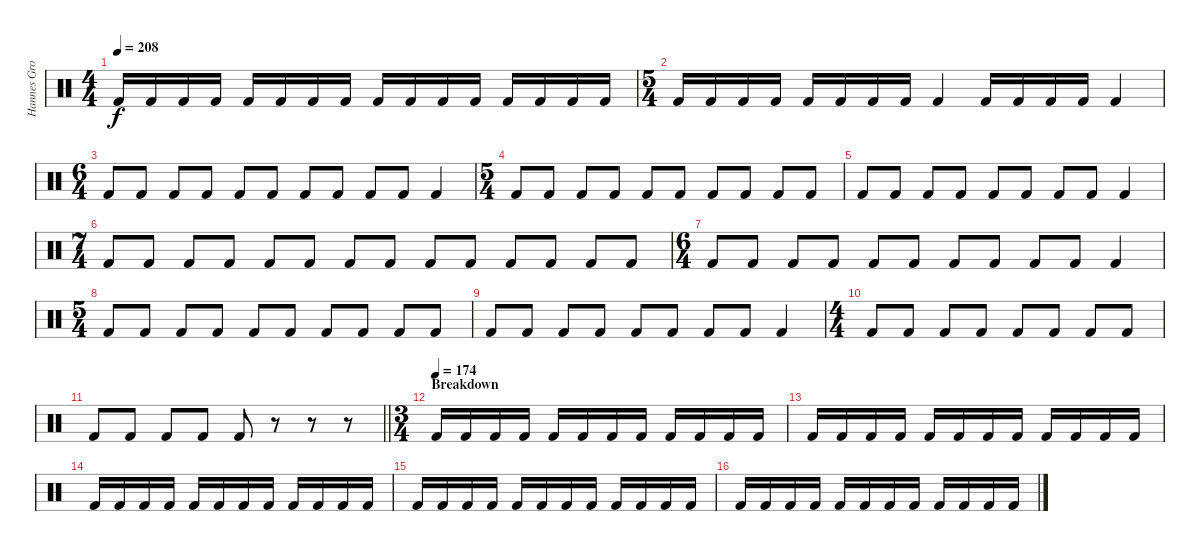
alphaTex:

\track ("Hannes Grossmann" "Hannes Gro") {instrument percussion}
\staff {score}
\articulation defaults
\ts (4 4)
\tempo 208
\clef neutral
\ks c "Kick (hit) 2".16{dy f} "Kick (hit) 2".16 "Kick (hit) 2".16 "Kick (hit) 2".16 "Kick (hit) 2".16 "Kick (hit) 2".16 "Kick (hit) 2".16 "Kick (hit) 2".16 "Kick (hit) 2".16 "Kick (hit) 2".16 "Kick (hit) 2".16 "Kick (hit) 2".16 "Kick (hit) 2".16 "Kick (hit) 2".16 "Kick (hit) 2".16 "Kick (hit) 2".16
|
\ts (5 4)
"Kick (hit) 2".16 "Kick (hit) 2".16 "Kick (hit) 2".16 "Kick (hit) 2".16 "Kick (hit) 2".16 "Kick (hit) 2".16 "Kick (hit) 2".16 "Kick (hit) 2".16 "Kick (hit) 2".4 "Kick (hit) 2".16 "Kick (hit) 2".16 "Kick (hit) 2".16 "Kick (hit) 2".16 "Kick (hit) 2".4 |
\ts (6 4)
"Kick (hit) 2".8 "Kick (hit) 2".8 "Kick (hit) 2".8 "Kick (hit) 2".8 "Kick (hit) 2".8 "Kick (hit) 2".8 "Kick (hit) 2".8 "Kick (hit) 2".8 "Kick (hit) 2".8 "Kick (hit) 2".8 "Kick (hit) 2".4 |
\ts (5 4)
"Kick (hit) 2".8 "Kick (hit) 2".8 "Kick (hit) 2".8 "Kick (hit) 2".8 "Kick (hit) 2".8 "Kick (hit) 2".8 "Kick (hit) 2".8 "Kick (hit) 2".8 "Kick (hit) 2".8 "Kick (hit) 2".8 |
"Kick (hit) 2".8 "Kick (hit) 2".8 "Kick (hit) 2".8 "Kick (hit) 2".8 "Kick (hit) 2".8 "Kick (hit) 2".8 "Kick (hit) 2".8 "Kick (hit) 2".8 "Kick (hit) 2".4 |
\ts (7 4)
"Kick (hit) 2".8 "Kick (hit) 2".8 "Kick (hit) 2".8 "Kick (hit) 2".8 "Kick (hit) 2".8 "Kick (hit) 2".8 "Kick (hit) 2".8 "Kick (hit) 2".8 "Kick (hit) 2".8 "Kick (hit) 2".8 "Kick (hit) 2".8 "Kick (hit) 2".8 "Kick (hit) 2".8 "Kick (hit) 2".8 |
\ts (6 4)
"Kick (hit) 2".8 "Kick (hit) 2".8 "Kick (hit) 2".8 "Kick (hit) 2".8 "Kick (hit) 2".8 "Kick (hit) 2".8 "Kick (hit) 2".8 "Kick (hit) 2".8 "Kick (hit) 2".8 "Kick (hit) 2".8 "Kick (hit) 2".4 |
\ts (5 4)
"Kick (hit) 2".8 "Kick (hit) 2".8 "Kick (hit) 2".8 "Kick (hit) 2".8 "Kick (hit) 2".8 "Kick (hit) 2".8 "Kick (hit) 2".8 "Kick (hit) 2".8 "Kick (hit) 2".8 "Kick (hit) 2".8 |
"Kick (hit) 2".8 "Kick (hit) 2".8 "Kick (hit) 2".8 "Kick (hit) 2".8 "Kick (hit) 2".8 "Kick (hit) 2".8 "Kick (hit) 2".8 "Kick (hit) 2".8 "Kick (hit) 2".4 |
\ts (4 4)
"Kick (hit) 2".8 "Kick (hit) 2".8 "Kick (hit) 2".8 "Kick (hit) 2".8 "Kick (hit) 2".8 "Kick (hit) 2".8 "Kick (hit) 2".8 "Kick (hit) 2".8 |
\barLineRight lightlight "Kick (hit) 2".8 "Kick (hit) 2".8 "Kick (hit) 2".8 "Kick (hit) 2".8 "Kick (hit) 2".8
r.8 r.8 r.8 |
\ts (3 4)
\section ("" "Breakdown")
\tempo (174)
"Kick (hit) 2".16 "Kick (hit) 2".16 "Kick (hit) 2".16 "Kick (hit) 2".16 "Kick (hit) 2".16 "Kick (hit) 2".16 "Kick (hit) 2".16 "Kick (hit) 2".16 "Kick (hit) 2".16 "Kick (hit) 2".16 "Kick (hit) 2".16 "Kick (hit) 2".16 |
"Kick (hit) 2".16 "Kick (hit) 2".16 "Kick (hit) 2".16 "Kick (hit) 2".16 "Kick (hit) 2".16 "Kick (hit) 2".16 "Kick (hit) 2".16 "Kick (hit) 2".16 "Kick (hit) 2".16 "Kick (hit) 2".16 "Kick (hit) 2".16 "Kick (hit) 2".16 |
"Kick (hit) 2".16 "Kick (hit) 2".16 "Kick (hit) 2".16 "Kick (hit) 2".16 "Kick (hit) 2".16 "Kick (hit) 2".16 "Kick (hit) 2".16 "Kick (hit) 2".16 "Kick (hit) 2".16 "Kick (hit) 2".16 "Kick (hit) 2".16 "Kick (hit) 2".16 |
"Kick (hit) 2".16 "Kick (hit) 2".16 "Kick (hit) 2".16 "Kick (hit) 2".16 "Kick (hit) 2".16 "Kick (hit) 2".16 "Kick (hit) 2".16 "Kick (hit) 2".16 "Kick (hit) 2".16 "Kick (hit) 2".16 "Kick (hit) 2".16 "Kick (hit) 2".16 |
"Kick (hit) 2".16 "Kick (hit) 2".16 "Kick (hit) 2".16 "Kick (hit) 2".16 "Kick (hit) 2".16 "Kick (hit) 2".16 "Kick (hit) 2".16 "Kick (hit) 2".16 "Kick (hit) 2".16 "Kick (hit) 2".16 "Kick (hit) 2".16 "Kick (hit) 2".16
